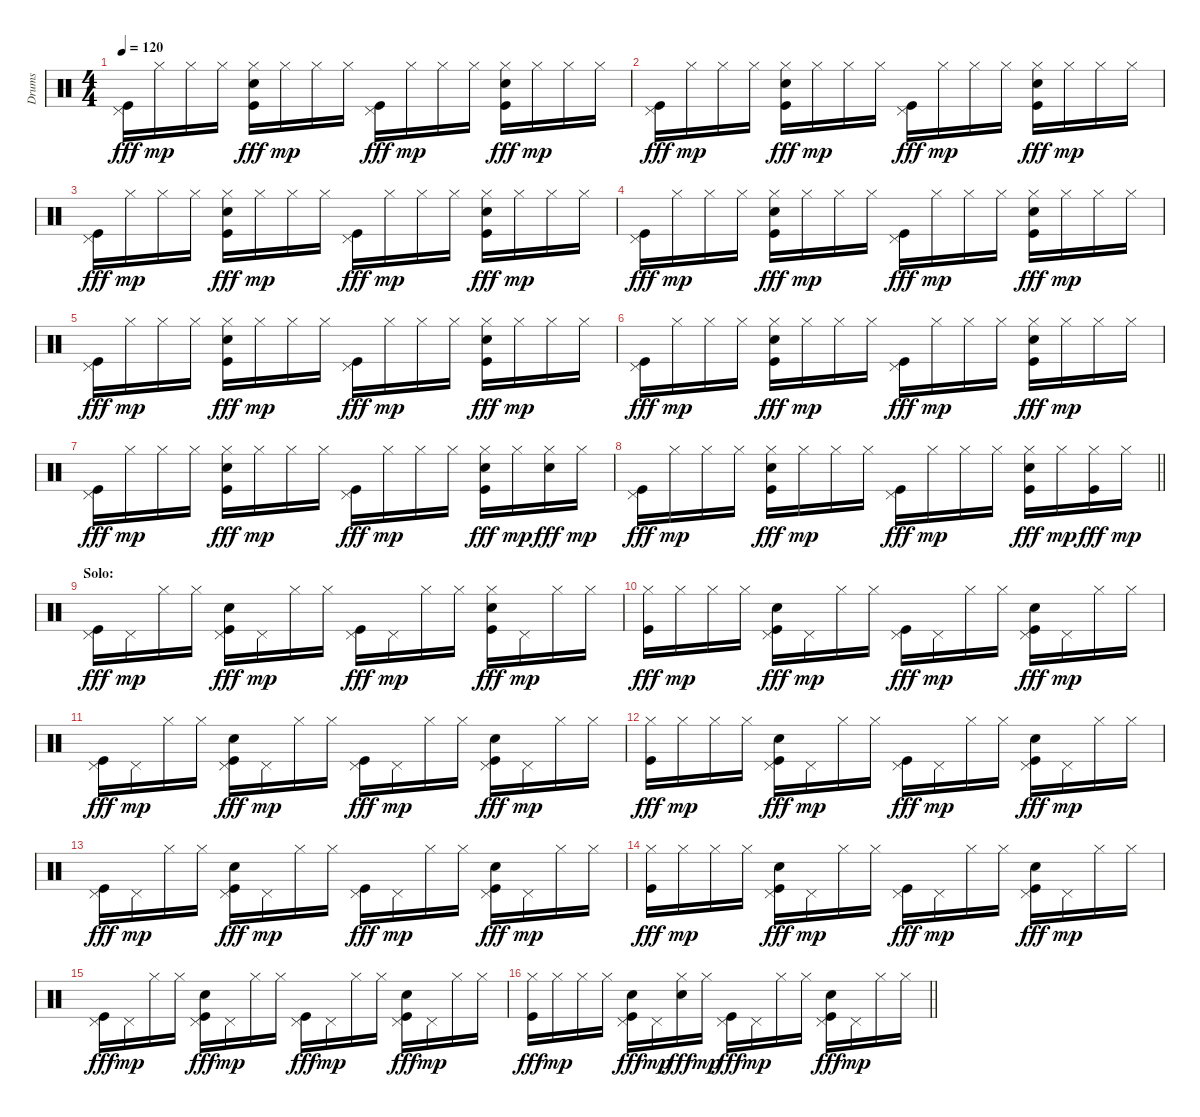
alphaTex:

\track ("Drums" "Drums") {instrument percussion}
\staff {score}
\articulation defaults
\ts (4 4)
\tempo 120
\clef neutral
\ks c
("Pedal Hi-Hat (hit)" "Kick (hit)").16{dy fff} "Hi-Hat (closed)".16{dy mp} "Hi-Hat (closed)".16 "Hi-Hat (closed)".16 ("Hi-Hat (closed)" "Snare (hit) 2" "Kick (hit)").16{dy fff} "Hi-Hat (closed)".16{dy mp} "Hi-Hat (closed)".16 "Hi-Hat (closed)".16 ("Pedal Hi-Hat (hit)" "Kick (hit)").16{dy fff} "Hi-Hat (closed)".16{dy mp} "Hi-Hat (closed)".16 "Hi-Hat (closed)".16 ("Hi-Hat (closed)" "Snare (hit) 2" "Kick (hit)").16{dy fff} "Hi-Hat (closed)".16{dy mp} "Hi-Hat (closed)".16 "Hi-Hat (closed)".16 |
("Pedal Hi-Hat (hit)" "Kick (hit)").16{dy fff} "Hi-Hat (closed)".16{dy mp} "Hi-Hat (closed)".16 "Hi-Hat (closed)".16 ("Hi-Hat (closed)" "Snare (hit) 2" "Kick (hit)").16{dy fff} "Hi-Hat (closed)".16{dy mp} "Hi-Hat (closed)".16 "Hi-Hat (closed)".16 ("Pedal Hi-Hat (hit)" "Kick (hit)").16{dy fff} "Hi-Hat (closed)".16{dy mp} "Hi-Hat (closed)".16 "Hi-Hat (closed)".16 ("Hi-Hat (closed)" "Snare (hit) 2" "Kick (hit)").16{dy fff} "Hi-Hat (closed)".16{dy mp} "Hi-Hat (closed)".16 "Hi-Hat (closed)".16 |
("Pedal Hi-Hat (hit)" "Kick (hit)").16{dy fff} "Hi-Hat (closed)".16{dy mp} "Hi-Hat (closed)".16 "Hi-Hat (closed)".16 ("Hi-Hat (closed)" "Snare (hit) 2" "Kick (hit)").16{dy fff} "Hi-Hat (closed)".16{dy mp} "Hi-Hat (closed)".16 "Hi-Hat (closed)".16 ("Pedal Hi-Hat (hit)" "Kick (hit)").16{dy fff} "Hi-Hat (closed)".16{dy mp} "Hi-Hat (closed)".16 "Hi-Hat (closed)".16 ("Hi-Hat (closed)" "Snare (hit) 2" "Kick (hit)").16{dy fff} "Hi-Hat (closed)".16{dy mp} "Hi-Hat (closed)".16 "Hi-Hat (closed)".16 |
("Pedal Hi-Hat (hit)" "Kick (hit)").16{dy fff} "Hi-Hat (closed)".16{dy mp} "Hi-Hat (closed)".16 "Hi-Hat (closed)".16 ("Hi-Hat (closed)" "Snare (hit) 2" "Kick (hit)").16{dy fff} "Hi-Hat (closed)".16{dy mp} "Hi-Hat (closed)".16 "Hi-Hat (closed)".16 ("Pedal Hi-Hat (hit)" "Kick (hit)").16{dy fff} "Hi-Hat (closed)".16{dy mp} "Hi-Hat (closed)".16 "Hi-Hat (closed)".16 ("Hi-Hat (closed)" "Snare (hit) 2" "Kick (hit)").16{dy fff} "Hi-Hat (closed)".16{dy mp} "Hi-Hat (closed)".16 "Hi-Hat (closed)".16 |
("Pedal Hi-Hat (hit)" "Kick (hit)").16{dy fff} "Hi-Hat (closed)".16{dy mp} "Hi-Hat (closed)".16 "Hi-Hat (closed)".16 ("Hi-Hat (closed)" "Snare (hit) 2" "Kick (hit)").16{dy fff} "Hi-Hat (closed)".16{dy mp} "Hi-Hat (closed)".16 "Hi-Hat (closed)".16 ("Pedal Hi-Hat (hit)" "Kick (hit)").16{dy fff} "Hi-Hat (closed)".16{dy mp} "Hi-Hat (closed)".16 "Hi-Hat (closed)".16 ("Hi-Hat (closed)" "Snare (hit) 2" "Kick (hit)").16{dy fff} "Hi-Hat (closed)".16{dy mp} "Hi-Hat (closed)".16 "Hi-Hat (closed)".16 |
("Pedal Hi-Hat (hit)" "Kick (hit)").16{dy fff} "Hi-Hat (closed)".16{dy mp} "Hi-Hat (closed)".16 "Hi-Hat (closed)".16 ("Hi-Hat (closed)" "Snare (hit) 2" "Kick (hit)").16{dy fff} "Hi-Hat (closed)".16{dy mp} "Hi-Hat (closed)".16 "Hi-Hat (closed)".16 ("Pedal Hi-Hat (hit)" "Kick (hit)").16{dy fff} "Hi-Hat (closed)".16{dy mp} "Hi-Hat (closed)".16 "Hi-Hat (closed)".16 ("Hi-Hat (closed)" "Snare (hit) 2" "Kick (hit)").16{dy fff} "Hi-Hat (closed)".16{dy mp} "Hi-Hat (closed)".16 "Hi-Hat (closed)".16 |
("Pedal Hi-Hat (hit)" "Kick (hit)").16{dy fff} "Hi-Hat (closed)".16{dy mp} "Hi-Hat (closed)".16 "Hi-Hat (closed)".16 ("Hi-Hat (closed)" "Snare (hit) 2" "Kick (hit)").16{dy fff} "Hi-Hat (closed)".16{dy mp} "Hi-Hat (closed)".16 "Hi-Hat (closed)".16 ("Pedal Hi-Hat (hit)" "Kick (hit)").16{dy fff} "Hi-Hat (closed)".16{dy mp} "Hi-Hat (closed)".16 "Hi-Hat (closed)".16 ("Hi-Hat (closed)" "Snare (hit) 2" "Kick (hit)").16{dy fff} "Hi-Hat (closed)".16{dy mp} ("Hi-Hat (closed)" "Snare (hit) 2").16{dy fff} "Hi-Hat (closed)".16{dy mp} |
\barLineRight lightlight
("Pedal Hi-Hat (hit)" "Kick (hit)").16{dy fff} "Hi-Hat (closed)".16{dy mp} "Hi-Hat (closed)".16 "Hi-Hat (closed)".16 ("Hi-Hat (closed)" "Snare (hit) 2" "Kick (hit)").16{dy fff} "Hi-Hat (closed)".16{dy mp} "Hi-Hat (closed)".16 "Hi-Hat (closed)".16 ("Pedal Hi-Hat (hit)" "Kick (hit)").16{dy fff} "Hi-Hat (closed)".16{dy mp} "Hi-Hat (closed)".16 "Hi-Hat (closed)".16 ("Hi-Hat (closed)" "Snare (hit) 2" "Kick (hit)").16{dy fff} "Hi-Hat (closed)".16{dy mp} ("Hi-Hat (closed)" "Kick (hit)").16{dy fff} "Hi-Hat (closed)".16{dy mp} |
\section ("" "Solo:")
("Pedal Hi-Hat (hit)" "Kick (hit)").16{dy fff} "Pedal Hi-Hat (hit)".16{dy mp} "Hi-Hat (closed)".16 "Hi-Hat (closed)".16 ("Pedal Hi-Hat (hit)" "Snare (hit) 2" "Kick (hit)").16{dy fff} "Pedal Hi-Hat (hit)".16{dy mp} "Hi-Hat (closed)".16 "Hi-Hat (closed)".16 ("Pedal Hi-Hat (hit)" "Kick (hit)").16{dy fff} "Pedal Hi-Hat (hit)".16{dy mp} "Hi-Hat (closed)".16 "Hi-Hat (closed)".16 ("Hi-Hat (closed)" "Snare (hit) 2" "Kick (hit)").16{dy fff} "Pedal Hi-Hat (hit)".16{dy mp} "Hi-Hat (closed)".16 "Hi-Hat (closed)".16 |
("Hi-Hat (closed)" "Kick (hit)").16{dy fff} "Hi-Hat (closed)".16{dy mp} "Hi-Hat (closed)".16 "Hi-Hat (closed)".16 ("Pedal Hi-Hat (hit)" "Snare (hit) 2" "Kick (hit)").16{dy fff} "Pedal Hi-Hat (hit)".16{dy mp} "Hi-Hat (closed)".16 "Hi-Hat (closed)".16 ("Pedal Hi-Hat (hit)" "Kick (hit)").16{dy fff} "Pedal Hi-Hat (hit)".16{dy mp} "Hi-Hat (closed)".16 "Hi-Hat (closed)".16 ("Pedal Hi-Hat (hit)" "Snare (hit) 2" "Kick (hit)").16{dy fff} "Pedal Hi-Hat (hit)".16{dy mp} "Hi-Hat (closed)".16 "Hi-Hat (closed)".16 |
("Pedal Hi-Hat (hit)" "Kick (hit)").16{dy fff} "Pedal Hi-Hat (hit)".16{dy mp} "Hi-Hat (closed)".16 "Hi-Hat (closed)".16 ("Pedal Hi-Hat (hit)" "Snare (hit) 2" "Kick (hit)").16{dy fff} "Pedal Hi-Hat (hit)".16{dy mp} "Hi-Hat (closed)".16 "Hi-Hat (closed)".16 ("Pedal Hi-Hat (hit)" "Kick (hit)").16{dy fff} "Pedal Hi-Hat (hit)".16{dy mp} "Hi-Hat (closed)".16 "Hi-Hat (closed)".16 ("Pedal Hi-Hat (hit)" "Snare (hit) 2" "Kick (hit)").16{dy fff} "Pedal Hi-Hat (hit)".16{dy mp} "Hi-Hat (closed)".16 "Hi-Hat (closed)".16 |
("Hi-Hat (closed)" "Kick (hit)").16{dy fff} "Hi-Hat (closed)".16{dy mp} "Hi-Hat (closed)".16 "Hi-Hat (closed)".16 ("Pedal Hi-Hat (hit)" "Snare (hit) 2" "Kick (hit)").16{dy fff} "Pedal Hi-Hat (hit)".16{dy mp} "Hi-Hat (closed)".16 "Hi-Hat (closed)".16 ("Pedal Hi-Hat (hit)" "Kick (hit)").16{dy fff} "Pedal Hi-Hat (hit)".16{dy mp} "Hi-Hat (closed)".16 "Hi-Hat (closed)".16 ("Pedal Hi-Hat (hit)" "Snare (hit) 2" "Kick (hit)").16{dy fff} "Pedal Hi-Hat (hit)".16{dy mp} "Hi-Hat (closed)".16 "Hi-Hat (closed)".16 |
("Pedal Hi-Hat (hit)" "Kick (hit)").16{dy fff} "Pedal Hi-Hat (hit)".16{dy mp} "Hi-Hat (closed)".16 "Hi-Hat (closed)".16 ("Pedal Hi-Hat (hit)" "Snare (hit) 2" "Kick (hit)").16{dy fff} "Pedal Hi-Hat (hit)".16{dy mp} "Hi-Hat (closed)".16 "Hi-Hat (closed)".16 ("Pedal Hi-Hat (hit)" "Kick (hit)").16{dy fff} "Pedal Hi-Hat (hit)".16{dy mp} "Hi-Hat (closed)".16 "Hi-Hat (closed)".16 ("Pedal Hi-Hat (hit)" "Snare (hit) 2" "Kick (hit)").16{dy fff} "Pedal Hi-Hat (hit)".16{dy mp} "Hi-Hat (closed)".16 "Hi-Hat (closed)".16 |
("Hi-Hat (closed)" "Kick (hit)").16{dy fff} "Hi-Hat (closed)".16{dy mp} "Hi-Hat (closed)".16 "Hi-Hat (closed)".16 ("Pedal Hi-Hat (hit)" "Snare (hit) 2" "Kick (hit)").16{dy fff} "Pedal Hi-Hat (hit)".16{dy mp} "Hi-Hat (closed)".16 "Hi-Hat (closed)".16 ("Pedal Hi-Hat (hit)" "Kick (hit)").16{dy fff} "Pedal Hi-Hat (hit)".16{dy mp} "Hi-Hat (closed)".16 "Hi-Hat (closed)".16 ("Pedal Hi-Hat (hit)" "Snare (hit) 2" "Kick (hit)").16{dy fff} "Pedal Hi-Hat (hit)".16{dy mp} "Hi-Hat (closed)".16 "Hi-Hat (closed)".16 |
("Pedal Hi-Hat (hit)" "Kick (hit)").16{dy fff} "Pedal Hi-Hat (hit)".16{dy mp} "Hi-Hat (closed)".16 "Hi-Hat (closed)".16 ("Pedal Hi-Hat (hit)" "Snare (hit) 2" "Kick (hit)").16{dy fff} "Pedal Hi-Hat (hit)".16{dy mp} "Hi-Hat (closed)".16 "Hi-Hat (closed)".16 ("Pedal Hi-Hat (hit)" "Kick (hit)").16{dy fff} "Pedal Hi-Hat (hit)".16{dy mp} "Hi-Hat (closed)".16 "Hi-Hat (closed)".16 ("Pedal Hi-Hat (hit)" "Snare (hit) 2" "Kick (hit)").16{dy fff} "Pedal Hi-Hat (hit)".16{dy mp} "Hi-Hat (closed)".16 "Hi-Hat (closed)".16 |
\barLineRight lightlight
("Hi-Hat (closed)" "Kick (hit)").16{dy fff} "Hi-Hat (closed)".16{dy mp} "Hi-Hat (closed)".16 "Hi-Hat (closed)".16 ("Pedal Hi-Hat (hit)" "Snare (hit) 2" "Kick (hit)").16{dy fff} "Pedal Hi-Hat (hit)".16{dy mp} ("Hi-Hat (closed)" "Snare (hit) 2").16{dy fff} "Hi-Hat (closed)".16{dy mp} ("Pedal Hi-Hat (hit)" "Kick (hit)").16{dy fff} "Pedal Hi-Hat (hit)".16{dy mp} "Hi-Hat (closed)".16 "Hi-Hat (closed)".16 ("Pedal Hi-Hat (hit)" "Snare (hit) 2" "Kick (hit)").16{dy fff} "Pedal Hi-Hat (hit)".16{dy mp} "Hi-Hat (closed)".16 "Hi-Hat (closed)".16
